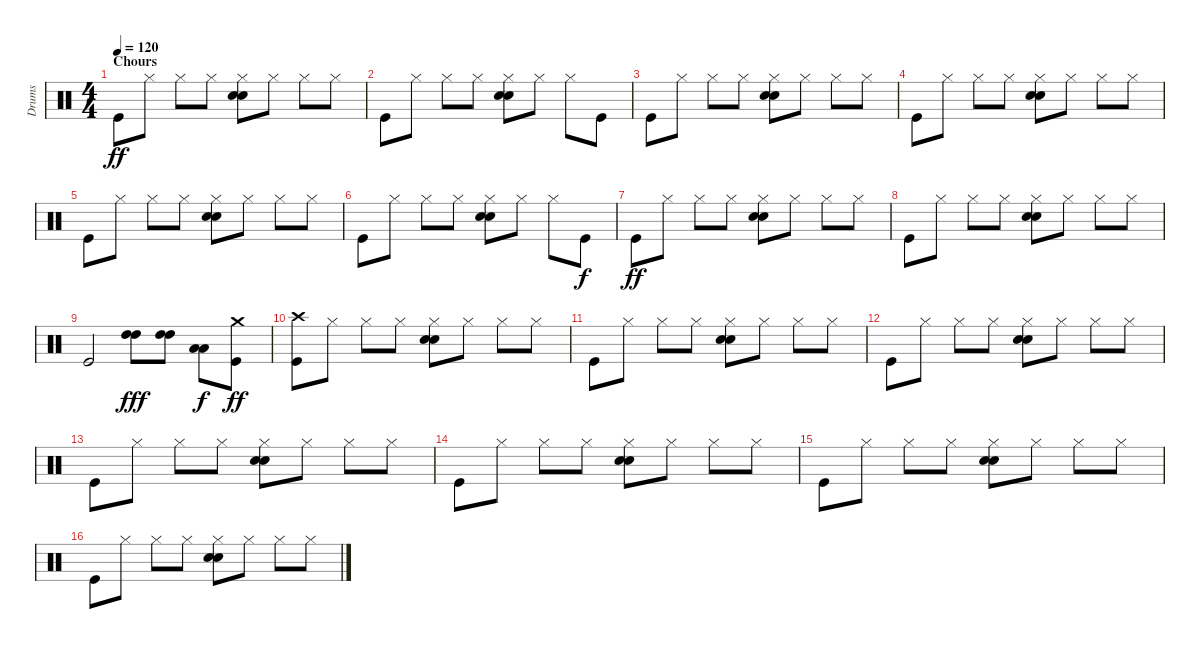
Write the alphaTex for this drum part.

\track ("Drums" "Drums") {instrument percussion}
\staff {score}
\articulation defaults
\ts (4 4)
\section ("" "Chours")
\tempo 120
\clef neutral
\ks c "Kick (hit)".8{dy ff} "Hi-Hat (closed)".8 "Hi-Hat (closed)".8 "Hi-Hat (closed)".8
("Electric Snare (hit)" "Hi-Hat (closed)" "Snare (hit) 2").8 "Hi-Hat (closed)".8 "Hi-Hat (closed)".8 "Hi-Hat (closed)".8 |
"Kick (hit)".8 "Hi-Hat (closed)".8 "Hi-Hat (closed)".8 "Hi-Hat (closed)".8 ("Electric Snare (hit)" "Hi-Hat (closed)" "Snare (hit) 2").8 "Hi-Hat (closed)".8 "Hi-Hat (closed)".8 "Kick (hit)".8 |
"Kick (hit)".8 "Hi-Hat (closed)".8 "Hi-Hat (closed)".8 "Hi-Hat (closed)".8 ("Electric Snare (hit)" "Hi-Hat (closed)" "Snare (hit) 2").8 "Hi-Hat (closed)".8 "Hi-Hat (closed)".8 "Hi-Hat (closed)".8 |
"Kick (hit)".8 "Hi-Hat (closed)".8 "Hi-Hat (closed)".8 "Hi-Hat (closed)".8 ("Electric Snare (hit)" "Hi-Hat (closed)" "Snare (hit) 2").8 "Hi-Hat (closed)".8 "Hi-Hat (closed)".8 "Hi-Hat (closed)".8 |
"Kick (hit)".8 "Hi-Hat (closed)".8 "Hi-Hat (closed)".8 "Hi-Hat (closed)".8 ("Electric Snare (hit)" "Hi-Hat (closed)" "Snare (hit) 2").8 "Hi-Hat (closed)".8 "Hi-Hat (closed)".8 "Hi-Hat (closed)".8 |
"Kick (hit)".8 "Hi-Hat (closed)".8 "Hi-Hat (closed)".8 "Hi-Hat (closed)".8 ("Electric Snare (hit)" "Hi-Hat (closed)" "Snare (hit) 2").8 "Hi-Hat (closed)".8 "Hi-Hat (closed)".8 "Kick (hit)".8{dy f} |
"Kick (hit)".8{dy ff} "Hi-Hat (closed)".8 "Hi-Hat (closed)".8 "Hi-Hat (closed)".8 ("Electric Snare (hit)" "Hi-Hat (closed)" "Snare (hit) 2").8 "Hi-Hat (closed)".8 "Hi-Hat (closed)".8 "Hi-Hat (closed)".8 |
"Kick (hit)".8 "Hi-Hat (closed)".8 "Hi-Hat (closed)".8 "Hi-Hat (closed)".8 ("Electric Snare (hit)" "Hi-Hat (closed)" "Snare (hit) 2").8 "Hi-Hat (closed)".8 "Hi-Hat (closed)".8 "Hi-Hat (closed)".8 |
"Kick (hit)".2 ("High Tom (hit)" "High Tom (hit)").8{dy fff} ("High Tom (hit)" "High Tom (hit)").8 ("Low Tom (hit)" "Low Tom (hit)").8{dy f} ("Crash medium (hit)" "Kick (hit)").8{dy ff} |
("Crash high (hit)" "Kick (hit)").8 "Hi-Hat (closed)".8 "Hi-Hat (closed)".8 "Hi-Hat (closed)".8 ("Electric Snare (hit)" "Hi-Hat (closed)" "Snare (hit) 2").8 "Hi-Hat (closed)".8 "Hi-Hat (closed)".8 "Hi-Hat (closed)".8 |
"Kick (hit)".8 "Hi-Hat (closed)".8 "Hi-Hat (closed)".8 "Hi-Hat (closed)".8 ("Electric Snare (hit)" "Hi-Hat (closed)" "Snare (hit) 2").8 "Hi-Hat (closed)".8 "Hi-Hat (closed)".8 "Hi-Hat (closed)".8 |
"Kick (hit)".8 "Hi-Hat (closed)".8 "Hi-Hat (closed)".8 "Hi-Hat (closed)".8 ("Electric Snare (hit)" "Hi-Hat (closed)" "Snare (hit) 2").8 "Hi-Hat (closed)".8 "Hi-Hat (closed)".8 "Hi-Hat (closed)".8 |
"Kick (hit)".8 "Hi-Hat (closed)".8 "Hi-Hat (closed)".8 "Hi-Hat (closed)".8 ("Electric Snare (hit)" "Hi-Hat (closed)" "Snare (hit) 2").8 "Hi-Hat (closed)".8 "Hi-Hat (closed)".8 "Hi-Hat (closed)".8 |
"Kick (hit)".8 "Hi-Hat (closed)".8 "Hi-Hat (closed)".8 "Hi-Hat (closed)".8 ("Electric Snare (hit)" "Hi-Hat (closed)" "Snare (hit) 2").8 "Hi-Hat (closed)".8 "Hi-Hat (closed)".8 "Hi-Hat (closed)".8 |
"Kick (hit)".8 "Hi-Hat (closed)".8 "Hi-Hat (closed)".8 "Hi-Hat (closed)".8 ("Electric Snare (hit)" "Hi-Hat (closed)" "Snare (hit) 2").8 "Hi-Hat (closed)".8 "Hi-Hat (closed)".8 "Hi-Hat (closed)".8 |
"Kick (hit)".8 "Hi-Hat (closed)".8 "Hi-Hat (closed)".8 "Hi-Hat (closed)".8 ("Electric Snare (hit)" "Hi-Hat (closed)" "Snare (hit) 2").8 "Hi-Hat (closed)".8 "Hi-Hat (closed)".8 "Hi-Hat (closed)".8
